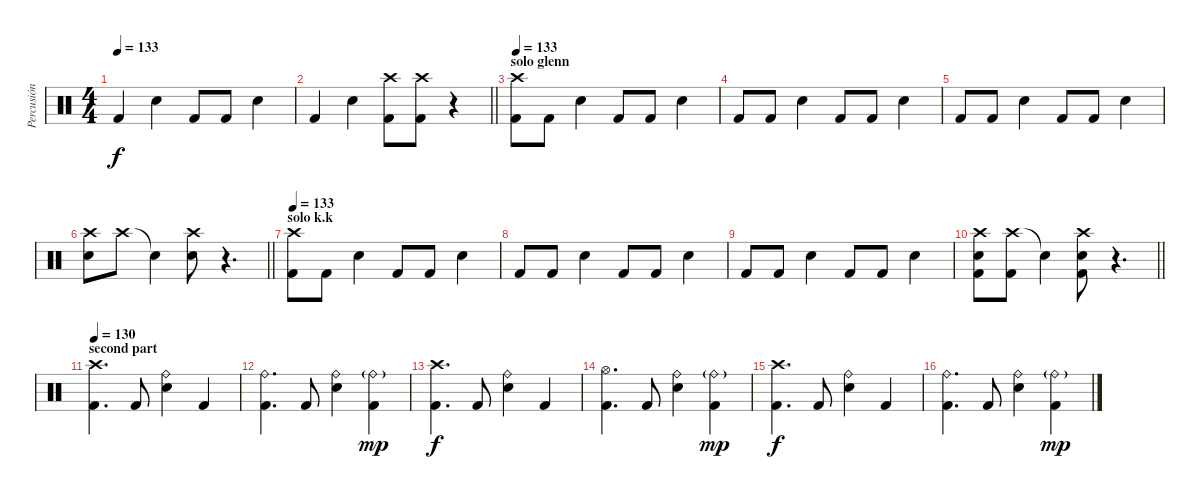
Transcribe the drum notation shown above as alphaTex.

\track ("Percusión" "Percusión") {instrument percussion}
\staff {score}
\articulation defaults
\ts (4 4)
\tempo 133
\clef neutral
\ks c "Kick (hit) 2".4{dy f} "Electric Snare (hit)".4 "Kick (hit) 2".8 "Kick (hit) 2".8 "Electric Snare (hit)".4
|
\barLineRight lightlight "Kick (hit) 2".4 "Electric Snare (hit)".4
("Crash high (hit)" "Kick (hit) 2").8 ("Crash high (hit)" "Kick (hit) 2").8 r.4 |
\section ("" "solo glenn ")
\tempo 133
("Crash high (hit)" "Kick (hit) 2").8 "Kick (hit) 2".8 "Electric Snare (hit)".4 "Kick (hit) 2".8 "Kick (hit) 2".8 "Electric Snare (hit)".4 |
"Kick (hit) 2".8 "Kick (hit) 2".8 "Electric Snare (hit)".4 "Kick (hit) 2".8 "Kick (hit) 2".8 "Electric Snare (hit)".4 |
"Kick (hit) 2".8 "Kick (hit) 2".8 "Electric Snare (hit)".4 "Kick (hit) 2".8 "Kick (hit) 2".8 "Electric Snare (hit)".4 |
\barLineRight lightlight
("Crash high (hit)" "Electric Snare (hit)").8 "Crash high (hit)".8 "Snare (hit)"{t}.4 ("Crash high (hit)" "Electric Snare (hit)").8 r.4{d} |
\section ("" "solo k.k")
\tempo 133
("Crash high (hit)" "Kick (hit) 2").8 "Kick (hit) 2".8 "Electric Snare (hit)".4 "Kick (hit) 2".8 "Kick (hit) 2".8 "Electric Snare (hit)".4 |
"Kick (hit) 2".8 "Kick (hit) 2".8 "Electric Snare (hit)".4 "Kick (hit) 2".8 "Kick (hit) 2".8 "Electric Snare (hit)".4 |
"Kick (hit) 2".8 "Kick (hit) 2".8 "Electric Snare (hit)".4 "Kick (hit) 2".8 "Kick (hit) 2".8 "Electric Snare (hit)".4 |
\barLineRight lightlight
("Crash high (hit)" "Electric Snare (hit)" "Kick (hit) 2").8 ("Crash high (hit)" "Kick (hit) 2").8 "Snare (hit)"{t}.4 ("Crash high (hit)" "Electric Snare (hit)" "Kick (hit) 2").8 r.4{d} |
\section ("" "second part")
\tempo 130
("Crash high (hit)" "Kick (hit) 2").4{d} "Kick (hit) 2".8 ("Ride (bell)" "Electric Snare (hit)").4 "Kick (hit) 2".4 |
("Ride (bell)" "Kick (hit) 2").4{d} "Kick (hit) 2".8 ("Ride (bell)" "Electric Snare (hit)").4 ("Ride (bell)"{g} "Kick (hit) 2").4{dy mp} |
("Crash high (hit)" "Kick (hit) 2").4{d dy f} "Kick (hit) 2".8 ("Ride (bell)" "Electric Snare (hit)").4 "Kick (hit) 2".4 |
("Hi-Hat (open)" "Kick (hit) 2").4{d} "Kick (hit) 2".8 ("Ride (bell)" "Electric Snare (hit)").4 ("Ride (bell)"{g} "Kick (hit) 2").4{dy mp} |
("Crash high (hit)" "Kick (hit) 2").4{d dy f} "Kick (hit) 2".8 ("Ride (bell)" "Electric Snare (hit)").4 "Kick (hit) 2".4 |
("Ride (bell)" "Kick (hit) 2").4{d} "Kick (hit) 2".8 ("Ride (bell)" "Electric Snare (hit)").4 ("Ride (bell)"{g} "Kick (hit) 2").4{dy mp}
